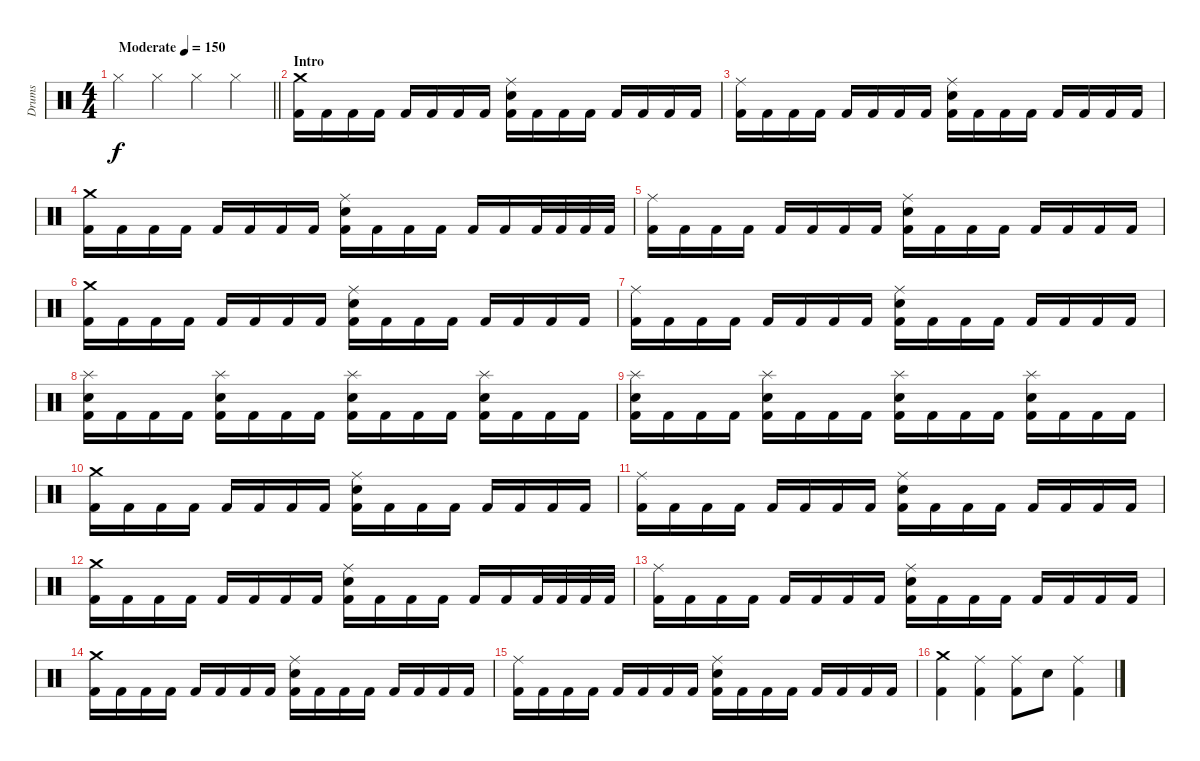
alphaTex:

\track ("Drums" "Drums") {instrument percussion}
\staff {score}
\articulation defaults
\ts (4 4)
\tempo (150 "Moderate")
\clef neutral
\barLineRight lightlight
\ks c "Hi-Hat (closed)".4{dy f} "Hi-Hat (closed)".4 "Hi-Hat (closed)".4 "Hi-Hat (closed)".4
|
\section ("" "Intro")
("Kick (hit) 2" "Crash medium (hit)").16 "Kick (hit) 2".16 "Kick (hit) 2".16 "Kick (hit) 2".16 "Kick (hit) 2".16 "Kick (hit) 2".16 "Kick (hit) 2".16 "Kick (hit) 2".16 ("Kick (hit) 2" "Snare (hit) 2" "Ride (middle)").16 "Kick (hit) 2".16 "Kick (hit) 2".16 "Kick (hit) 2".16 "Kick (hit) 2".16 "Kick (hit) 2".16 "Kick (hit) 2".16 "Kick (hit) 2".16 |
("Kick (hit) 2" "Ride (middle)").16 "Kick (hit) 2".16 "Kick (hit) 2".16 "Kick (hit) 2".16 "Kick (hit) 2".16 "Kick (hit) 2".16 "Kick (hit) 2".16 "Kick (hit) 2".16 ("Kick (hit) 2" "Snare (hit) 2" "Ride (middle)").16 "Kick (hit) 2".16 "Kick (hit) 2".16 "Kick (hit) 2".16 "Kick (hit) 2".16 "Kick (hit) 2".16 "Kick (hit) 2".16 "Kick (hit) 2".16 |
("Kick (hit) 2" "Crash medium (hit)").16 "Kick (hit) 2".16 "Kick (hit) 2".16 "Kick (hit) 2".16 "Kick (hit) 2".16 "Kick (hit) 2".16 "Kick (hit) 2".16 "Kick (hit) 2".16 ("Kick (hit) 2" "Snare (hit) 2" "Ride (middle)").16 "Kick (hit) 2".16 "Kick (hit) 2".16 "Kick (hit) 2".16 "Kick (hit) 2".16 "Kick (hit) 2".16 "Kick (hit) 2".32 "Kick (hit) 2".32 "Kick (hit) 2".32 "Kick (hit) 2".32 |
("Kick (hit) 2" "Ride (middle)").16 "Kick (hit) 2".16 "Kick (hit) 2".16 "Kick (hit) 2".16 "Kick (hit) 2".16 "Kick (hit) 2".16 "Kick (hit) 2".16 "Kick (hit) 2".16 ("Kick (hit) 2" "Snare (hit) 2" "Ride (middle)").16 "Kick (hit) 2".16 "Kick (hit) 2".16 "Kick (hit) 2".16 "Kick (hit) 2".16 "Kick (hit) 2".16 "Kick (hit) 2".16 "Kick (hit) 2".16 |
("Kick (hit) 2" "Crash medium (hit)").16 "Kick (hit) 2".16 "Kick (hit) 2".16 "Kick (hit) 2".16 "Kick (hit) 2".16 "Kick (hit) 2".16 "Kick (hit) 2".16 "Kick (hit) 2".16 ("Kick (hit) 2" "Snare (hit) 2" "Ride (middle)").16 "Kick (hit) 2".16 "Kick (hit) 2".16 "Kick (hit) 2".16 "Kick (hit) 2".16 "Kick (hit) 2".16 "Kick (hit) 2".16 "Kick (hit) 2".16 |
("Kick (hit) 2" "Ride (middle)").16 "Kick (hit) 2".16 "Kick (hit) 2".16 "Kick (hit) 2".16 "Kick (hit) 2".16 "Kick (hit) 2".16 "Kick (hit) 2".16 "Kick (hit) 2".16 ("Kick (hit) 2" "Snare (hit) 2" "Ride (middle)").16 "Kick (hit) 2".16 "Kick (hit) 2".16 "Kick (hit) 2".16 "Kick (hit) 2".16 "Kick (hit) 2".16 "Kick (hit) 2".16 "Kick (hit) 2".16 |
("Kick (hit) 2" "Snare (hit) 2" "Splash (hit)").16 "Kick (hit) 2".16 "Kick (hit) 2".16 "Kick (hit) 2".16 ("Kick (hit) 2" "Snare (hit) 2" "Splash (hit)").16 "Kick (hit) 2".16 "Kick (hit) 2".16 "Kick (hit) 2".16 ("Kick (hit) 2" "Snare (hit) 2" "Splash (hit)").16 "Kick (hit) 2".16 "Kick (hit) 2".16 "Kick (hit) 2".16 ("Kick (hit) 2" "Snare (hit) 2" "Splash (hit)").16 "Kick (hit) 2".16 "Kick (hit) 2".16 "Kick (hit) 2".16 |
("Kick (hit) 2" "Snare (hit) 2" "Splash (hit)").16 "Kick (hit) 2".16 "Kick (hit) 2".16 "Kick (hit) 2".16 ("Kick (hit) 2" "Snare (hit) 2" "Splash (hit)").16 "Kick (hit) 2".16 "Kick (hit) 2".16 "Kick (hit) 2".16 ("Kick (hit) 2" "Snare (hit) 2" "Splash (hit)").16 "Kick (hit) 2".16 "Kick (hit) 2".16 "Kick (hit) 2".16 ("Kick (hit) 2" "Snare (hit) 2" "Splash (hit)").16 "Kick (hit) 2".16 "Kick (hit) 2".16 "Kick (hit) 2".16 |
("Kick (hit) 2" "Crash medium (hit)").16 "Kick (hit) 2".16 "Kick (hit) 2".16 "Kick (hit) 2".16 "Kick (hit) 2".16 "Kick (hit) 2".16 "Kick (hit) 2".16 "Kick (hit) 2".16 ("Kick (hit) 2" "Snare (hit) 2" "Ride (middle)").16 "Kick (hit) 2".16 "Kick (hit) 2".16 "Kick (hit) 2".16 "Kick (hit) 2".16 "Kick (hit) 2".16 "Kick (hit) 2".16 "Kick (hit) 2".16 |
("Kick (hit) 2" "Ride (middle)").16 "Kick (hit) 2".16 "Kick (hit) 2".16 "Kick (hit) 2".16 "Kick (hit) 2".16 "Kick (hit) 2".16 "Kick (hit) 2".16 "Kick (hit) 2".16 ("Kick (hit) 2" "Snare (hit) 2" "Ride (middle)").16 "Kick (hit) 2".16 "Kick (hit) 2".16 "Kick (hit) 2".16 "Kick (hit) 2".16 "Kick (hit) 2".16 "Kick (hit) 2".16 "Kick (hit) 2".16 |
("Kick (hit) 2" "Crash medium (hit)").16 "Kick (hit) 2".16 "Kick (hit) 2".16 "Kick (hit) 2".16 "Kick (hit) 2".16 "Kick (hit) 2".16 "Kick (hit) 2".16 "Kick (hit) 2".16 ("Kick (hit) 2" "Snare (hit) 2" "Ride (middle)").16 "Kick (hit) 2".16 "Kick (hit) 2".16 "Kick (hit) 2".16 "Kick (hit) 2".16 "Kick (hit) 2".16 "Kick (hit) 2".32 "Kick (hit) 2".32 "Kick (hit) 2".32 "Kick (hit) 2".32 |
("Kick (hit) 2" "Ride (middle)").16 "Kick (hit) 2".16 "Kick (hit) 2".16 "Kick (hit) 2".16 "Kick (hit) 2".16 "Kick (hit) 2".16 "Kick (hit) 2".16 "Kick (hit) 2".16 ("Kick (hit) 2" "Snare (hit) 2" "Ride (middle)").16 "Kick (hit) 2".16 "Kick (hit) 2".16 "Kick (hit) 2".16 "Kick (hit) 2".16 "Kick (hit) 2".16 "Kick (hit) 2".16 "Kick (hit) 2".16 |
("Kick (hit) 2" "Crash medium (hit)").16 "Kick (hit) 2".16 "Kick (hit) 2".16 "Kick (hit) 2".16 "Kick (hit) 2".16 "Kick (hit) 2".16 "Kick (hit) 2".16 "Kick (hit) 2".16 ("Kick (hit) 2" "Snare (hit) 2" "Ride (middle)").16 "Kick (hit) 2".16 "Kick (hit) 2".16 "Kick (hit) 2".16 "Kick (hit) 2".16 "Kick (hit) 2".16 "Kick (hit) 2".16 "Kick (hit) 2".16 |
("Kick (hit) 2" "Ride (middle)").16 "Kick (hit) 2".16 "Kick (hit) 2".16 "Kick (hit) 2".16 "Kick (hit) 2".16 "Kick (hit) 2".16 "Kick (hit) 2".16 "Kick (hit) 2".16 ("Kick (hit) 2" "Snare (hit) 2" "Ride (middle)").16 "Kick (hit) 2".16 "Kick (hit) 2".16 "Kick (hit) 2".16 "Kick (hit) 2".16 "Kick (hit) 2".16 "Kick (hit) 2".16 "Kick (hit) 2".16 |
("Kick (hit) 2" "Crash medium (hit)").4 ("Kick (hit) 2" "Ride (middle)").4 ("Kick (hit) 2" "Ride (middle)").8 "Snare (hit) 2".8 ("Kick (hit) 2" "Ride (middle)").4
